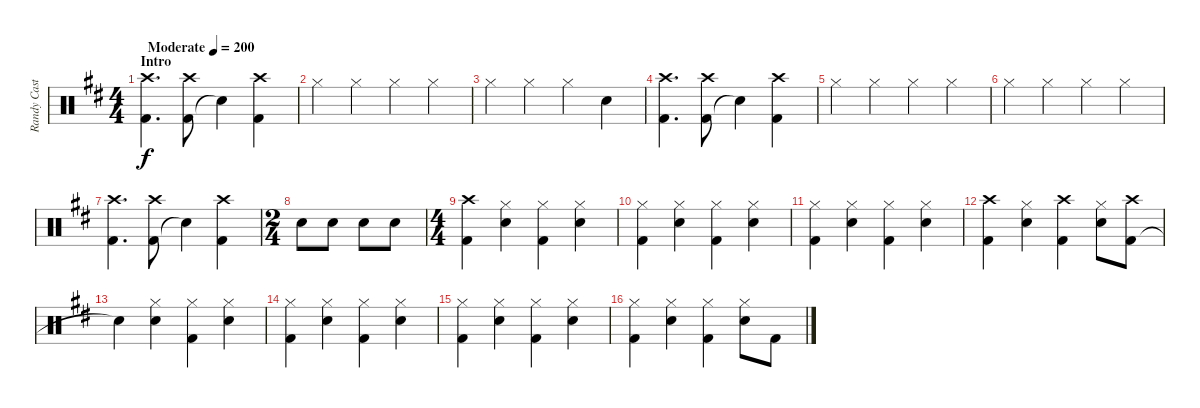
\track ("Randy Castillo" "Randy Cast") {instrument percussion}
\staff {score}
\articulation defaults
\ts (4 4)
\section ("" "Intro")
\tempo (200 "Moderate")
\clef neutral
\ks d
("Kick (hit) 2" "Crash high (hit)").4{d dy f} ("Kick (hit) 2" "Crash high (hit)").8 "Snare (hit)"{t}.4 ("Kick (hit) 2" "Crash high (hit)").4 |
"Hi-Hat (closed)".4 "Hi-Hat (closed)".4 "Hi-Hat (closed)".4 "Hi-Hat (closed)".4 |
"Hi-Hat (closed)".4 "Hi-Hat (closed)".4 "Hi-Hat (closed)".4 "Snare (hit)".4 |
("Kick (hit) 2" "Crash high (hit)").4{d} ("Kick (hit) 2" "Crash high (hit)").8 "Snare (hit)"{t}.4 ("Kick (hit) 2" "Crash high (hit)").4 |
"Hi-Hat (closed)".4 "Hi-Hat (closed)".4 "Hi-Hat (closed)".4 "Hi-Hat (closed)".4 |
"Hi-Hat (closed)".4 "Hi-Hat (closed)".4 "Hi-Hat (closed)".4 "Hi-Hat (closed)".4 |
("Kick (hit) 2" "Crash high (hit)").4{d} ("Kick (hit) 2" "Crash high (hit)").8 "Snare (hit)"{t}.4 ("Kick (hit) 2" "Crash high (hit)").4 |
\ts (2 4)
"Snare (hit) 2".8 "Snare (hit) 2".8 "Snare (hit) 2".8 "Snare (hit) 2".8 |
\ts (4 4)
("Kick (hit) 2" "Crash high (hit)").4 ("Hi-Hat (closed)" "Snare (hit) 2").4 ("Hi-Hat (closed)" "Kick (hit) 2").4 ("Hi-Hat (closed)" "Snare (hit) 2").4 |
("Hi-Hat (closed)" "Kick (hit) 2").4 ("Hi-Hat (closed)" "Snare (hit) 2").4 ("Hi-Hat (closed)" "Kick (hit) 2").4 ("Hi-Hat (closed)" "Snare (hit) 2").4 |
("Hi-Hat (closed)" "Kick (hit) 2").4 ("Hi-Hat (closed)" "Snare (hit) 2").4 ("Hi-Hat (closed)" "Kick (hit) 2").4 ("Hi-Hat (closed)" "Snare (hit) 2").4 |
("Kick (hit) 2" "Crash high (hit)").4 ("Hi-Hat (closed)" "Snare (hit) 2").4 ("Kick (hit) 2" "Crash high (hit)").4 ("Hi-Hat (closed)" "Snare (hit) 2").8 ("Kick (hit) 2" "Crash high (hit)").8 |
"Snare (hit)"{t}.4 ("Hi-Hat (closed)" "Snare (hit) 2").4 ("Hi-Hat (closed)" "Kick (hit) 2").4 ("Hi-Hat (closed)" "Snare (hit) 2").4 |
("Hi-Hat (closed)" "Kick (hit) 2").4 ("Hi-Hat (closed)" "Snare (hit) 2").4 ("Hi-Hat (closed)" "Kick (hit) 2").4 ("Hi-Hat (closed)" "Snare (hit) 2").4 |
("Hi-Hat (closed)" "Kick (hit) 2").4 ("Hi-Hat (closed)" "Snare (hit) 2").4 ("Hi-Hat (closed)" "Kick (hit) 2").4 ("Hi-Hat (closed)" "Snare (hit) 2").4 |
("Hi-Hat (closed)" "Kick (hit) 2").4 ("Hi-Hat (closed)" "Snare (hit) 2").4 ("Hi-Hat (closed)" "Kick (hit) 2").4 ("Hi-Hat (closed)" "Snare (hit) 2").8 "Kick (hit) 2".8
